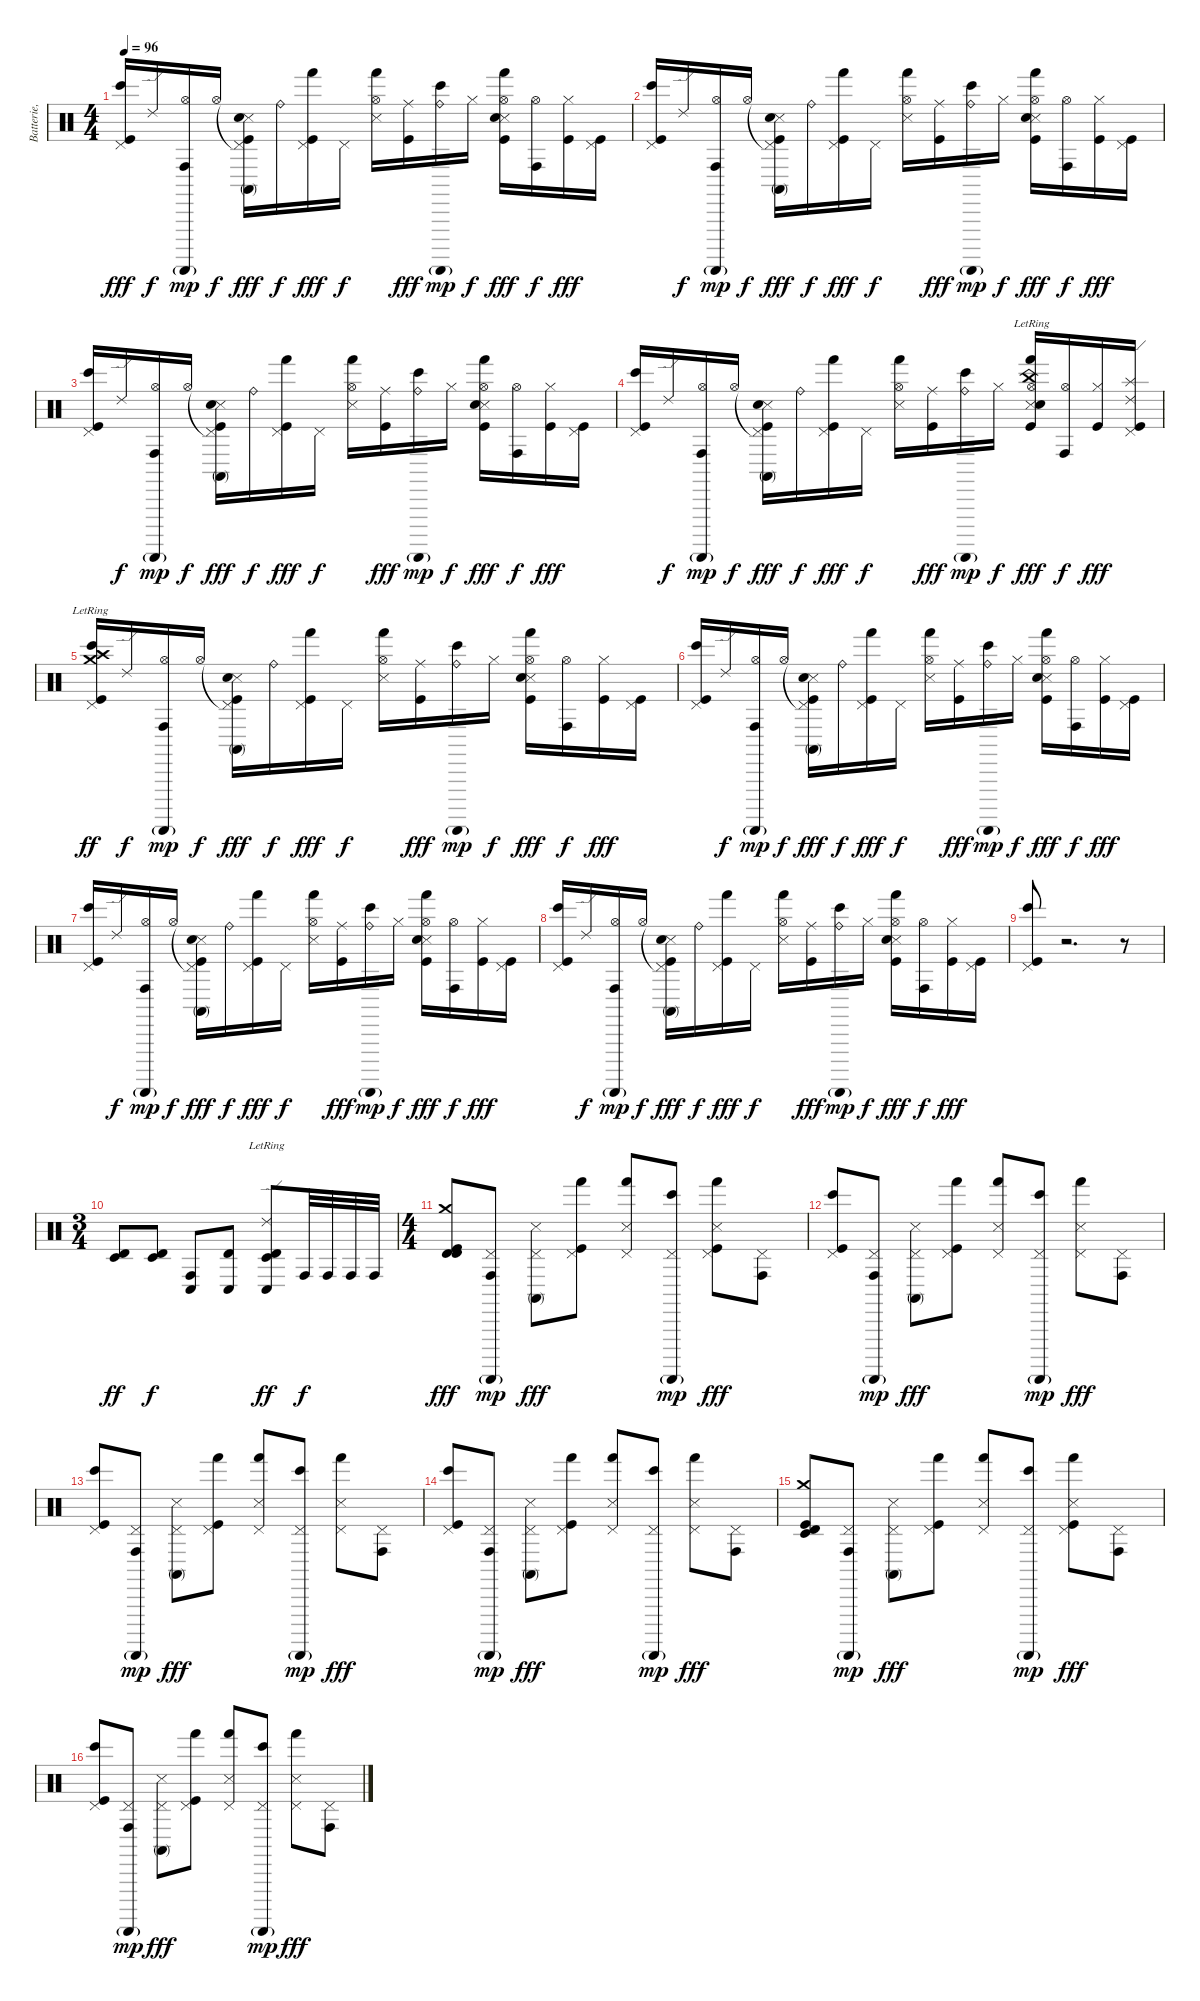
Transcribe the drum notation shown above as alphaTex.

\track ("Batterie, percu." "Batterie, ") {instrument percussion}
\staff {score}
\articulation defaults
\ts (4 4)
\tempo 96
\clef neutral
\ks c
("Pedal Hi-Hat (hit)" "Bongo High (hit)" "Kick (hit)").16{dy fff} "Ride (edge) 2".16{dy f} ("Hi-Hat (open)" "Conga high (hit)" "Guiro (scrap-return)"{g}).16{dy mp} "Hi-Hat (open)".16{dy f} ("Pedal Hi-Hat (hit)"{t} "Conga high (mute)" "Snare (side stick) 3" "Kick (hit)" "Electric Snare (hit)").16{dy fff} "Ride (bell)".16{dy f} ("Pedal Hi-Hat (hit)" "Hand (hit)" "Kick (hit)").16{dy fff} "Pedal Hi-Hat (hit)".16{dy f} ("Hi-Hat (open)" "Hand (hit)" "Snare (side stick) 3").16 ("Ride (middle)" "Kick (hit)").16{dy fff} ("Ride (bell)" "Bongo High (hit)" "Guiro (scrap-return)"{g}).16{dy mp} "Hi-Hat (closed)".16{dy f} ("Hi-Hat (open)" "Hand (hit)" "Snare (side stick) 3" "Kick (hit)" "Electric Snare (hit)").16{dy fff} ("Hi-Hat (open)" "Conga high (hit)").16{dy f} ("Hi-Hat (closed)" "Kick (hit)").16{dy fff} ("Pedal Hi-Hat (hit)" "Kick (hit)").16 |
("Pedal Hi-Hat (hit)" "Bongo High (hit)" "Kick (hit)").16 "Ride (edge) 2".16{dy f} ("Hi-Hat (open)" "Conga high (hit)" "Guiro (scrap-return)"{g}).16{dy mp} "Hi-Hat (open)".16{dy f} ("Pedal Hi-Hat (hit)"{t} "Conga high (mute)" "Snare (side stick) 3" "Kick (hit)" "Electric Snare (hit)").16{dy fff} "Ride (bell)".16{dy f} ("Pedal Hi-Hat (hit)" "Hand (hit)" "Kick (hit)").16{dy fff} "Pedal Hi-Hat (hit)".16{dy f} ("Hi-Hat (open)" "Hand (hit)" "Snare (side stick) 3").16 ("Ride (middle)" "Kick (hit)").16{dy fff} ("Ride (bell)" "Bongo High (hit)" "Guiro (scrap-return)"{g}).16{dy mp} "Hi-Hat (closed)".16{dy f} ("Hi-Hat (open)" "Hand (hit)" "Snare (side stick) 3" "Kick (hit)" "Electric Snare (hit)").16{dy fff} ("Hi-Hat (open)" "Conga high (hit)").16{dy f} ("Hi-Hat (closed)" "Kick (hit)").16{dy fff} ("Pedal Hi-Hat (hit)" "Kick (hit)").16 |
("Pedal Hi-Hat (hit)" "Bongo High (hit)" "Kick (hit)").16 "Ride (edge) 2".16{dy f} ("Hi-Hat (open)" "Conga high (hit)" "Guiro (scrap-return)"{g}).16{dy mp} "Hi-Hat (open)".16{dy f} ("Pedal Hi-Hat (hit)"{t} "Conga high (mute)" "Snare (side stick) 3" "Kick (hit)" "Electric Snare (hit)").16{dy fff} "Ride (bell)".16{dy f} ("Pedal Hi-Hat (hit)" "Hand (hit)" "Kick (hit)").16{dy fff} "Pedal Hi-Hat (hit)".16{dy f} ("Hi-Hat (open)" "Hand (hit)" "Snare (side stick) 3").16 ("Ride (middle)" "Kick (hit)").16{dy fff} ("Ride (bell)" "Bongo High (hit)" "Guiro (scrap-return)"{g}).16{dy mp} "Hi-Hat (closed)".16{dy f} ("Hi-Hat (open)" "Hand (hit)" "Snare (side stick) 3" "Kick (hit)" "Electric Snare (hit)").16{dy fff} ("Hi-Hat (open)" "Conga high (hit)").16{dy f} ("Hi-Hat (closed)" "Kick (hit)").16{dy fff} ("Pedal Hi-Hat (hit)" "Kick (hit)").16 |
("Pedal Hi-Hat (hit)" "Bongo High (hit)" "Kick (hit)").16 "Ride (edge) 2".16{dy f} ("Hi-Hat (open)" "Conga high (hit)" "Guiro (scrap-return)"{g}).16{dy mp} "Hi-Hat (open)".16{dy f} ("Pedal Hi-Hat (hit)"{t} "Conga high (mute)" "Snare (side stick) 3" "Kick (hit)" "Electric Snare (hit)").16{dy fff} "Ride (bell)".16{dy f} ("Pedal Hi-Hat (hit)" "Hand (hit)" "Kick (hit)").16{dy fff} "Pedal Hi-Hat (hit)".16{dy f} ("Hi-Hat (open)" "Hand (hit)" "Snare (side stick) 3").16 ("Ride (middle)" "Kick (hit)").16{dy fff} ("Ride (bell)" "Bongo High (hit)" "Guiro (scrap-return)"{g}).16{dy mp} "Hi-Hat (closed)".16{dy f} ("Hi-Hat (open)" "Hand (hit)" "Snare (side stick) 3" "Kick (hit)" "Electric Snare (hit)" "China (hit)"{lr}).16{dy fff} ("Hi-Hat (open)" "Conga high (hit)").16{dy f} ("Hi-Hat (closed)" "Kick (hit)").16{dy fff} ("Pedal Hi-Hat (hit)" "Kick (hit)" "Splash (hit)" "Ride (edge) 2").16 |
("Pedal Hi-Hat (hit)" "Bongo High (hit)" "Kick (hit)" "Crash medium (hit)"{lr} "Crash high (hit)"{lr}).16{dy ff} "Ride (edge) 2".16{dy f} ("Hi-Hat (open)" "Conga high (hit)" "Guiro (scrap-return)"{g}).16{dy mp} "Hi-Hat (open)".16{dy f} ("Pedal Hi-Hat (hit)"{t} "Conga high (mute)" "Snare (side stick) 3" "Kick (hit)" "Electric Snare (hit)").16{dy fff} "Ride (bell)".16{dy f} ("Pedal Hi-Hat (hit)" "Hand (hit)" "Kick (hit)").16{dy fff} "Pedal Hi-Hat (hit)".16{dy f} ("Hi-Hat (open)" "Hand (hit)" "Snare (side stick) 3").16 ("Ride (middle)" "Kick (hit)").16{dy fff} ("Ride (bell)" "Bongo High (hit)" "Guiro (scrap-return)"{g}).16{dy mp} "Hi-Hat (closed)".16{dy f} ("Hi-Hat (open)" "Hand (hit)" "Snare (side stick) 3" "Kick (hit)" "Electric Snare (hit)").16{dy fff} ("Hi-Hat (open)" "Conga high (hit)").16{dy f} ("Hi-Hat (closed)" "Kick (hit)").16{dy fff} ("Pedal Hi-Hat (hit)" "Kick (hit)").16 |
("Pedal Hi-Hat (hit)" "Bongo High (hit)" "Kick (hit)").16 "Ride (edge) 2".16{dy f} ("Hi-Hat (open)" "Conga high (hit)" "Guiro (scrap-return)"{g}).16{dy mp} "Hi-Hat (open)".16{dy f} ("Pedal Hi-Hat (hit)"{t} "Conga high (mute)" "Snare (side stick) 3" "Kick (hit)" "Electric Snare (hit)").16{dy fff} "Ride (bell)".16{dy f} ("Pedal Hi-Hat (hit)" "Hand (hit)" "Kick (hit)").16{dy fff} "Pedal Hi-Hat (hit)".16{dy f} ("Hi-Hat (open)" "Hand (hit)" "Snare (side stick) 3").16 ("Ride (middle)" "Kick (hit)").16{dy fff} ("Ride (bell)" "Bongo High (hit)" "Guiro (scrap-return)"{g}).16{dy mp} "Hi-Hat (closed)".16{dy f} ("Hi-Hat (open)" "Hand (hit)" "Snare (side stick) 3" "Kick (hit)" "Electric Snare (hit)").16{dy fff} ("Hi-Hat (open)" "Conga high (hit)").16{dy f} ("Hi-Hat (closed)" "Kick (hit)").16{dy fff} ("Pedal Hi-Hat (hit)" "Kick (hit)").16 |
("Pedal Hi-Hat (hit)" "Bongo High (hit)" "Kick (hit)").16 "Ride (edge) 2".16{dy f} ("Hi-Hat (open)" "Conga high (hit)" "Guiro (scrap-return)"{g}).16{dy mp} "Hi-Hat (open)".16{dy f} ("Pedal Hi-Hat (hit)"{t} "Conga high (mute)" "Snare (side stick) 3" "Kick (hit)" "Electric Snare (hit)").16{dy fff} "Ride (bell)".16{dy f} ("Pedal Hi-Hat (hit)" "Hand (hit)" "Kick (hit)").16{dy fff} "Pedal Hi-Hat (hit)".16{dy f} ("Hi-Hat (open)" "Hand (hit)" "Snare (side stick) 3").16 ("Ride (middle)" "Kick (hit)").16{dy fff} ("Ride (bell)" "Bongo High (hit)" "Guiro (scrap-return)"{g}).16{dy mp} "Hi-Hat (closed)".16{dy f} ("Hi-Hat (open)" "Hand (hit)" "Snare (side stick) 3" "Kick (hit)" "Electric Snare (hit)").16{dy fff} ("Hi-Hat (open)" "Conga high (hit)").16{dy f} ("Hi-Hat (closed)" "Kick (hit)").16{dy fff} ("Pedal Hi-Hat (hit)" "Kick (hit)").16 |
("Pedal Hi-Hat (hit)" "Bongo High (hit)" "Kick (hit)").16 "Ride (edge) 2".16{dy f} ("Hi-Hat (open)" "Conga high (hit)" "Guiro (scrap-return)"{g}).16{dy mp} "Hi-Hat (open)".16{dy f} ("Pedal Hi-Hat (hit)"{t} "Conga high (mute)" "Snare (side stick) 3" "Kick (hit)" "Electric Snare (hit)").16{dy fff} "Ride (bell)".16{dy f} ("Pedal Hi-Hat (hit)" "Hand (hit)" "Kick (hit)").16{dy fff} "Pedal Hi-Hat (hit)".16{dy f} ("Hi-Hat (open)" "Hand (hit)" "Snare (side stick) 3").16 ("Ride (middle)" "Kick (hit)").16{dy fff} ("Ride (bell)" "Bongo High (hit)" "Guiro (scrap-return)"{g}).16{dy mp} "Hi-Hat (closed)".16{dy f} ("Hi-Hat (open)" "Hand (hit)" "Snare (side stick) 3" "Kick (hit)" "Electric Snare (hit)").16{dy fff} ("Hi-Hat (open)" "Conga high (hit)").16{dy f} ("Hi-Hat (closed)" "Kick (hit)").16{dy fff} ("Pedal Hi-Hat (hit)" "Kick (hit)").16 |
("Pedal Hi-Hat (hit)" "Bongo High (hit)" "Kick (hit)").8 r.2{d} r.8 |
\ts (3 4)
("Timbale low (hit)" "Timbale high (hit)").8{dy ff} ("Timbale low (hit)" "Timbale high (hit)").8{dy f} ("Conga low (hit)" "Conga high (hit)").8 ("Timbale high (hit)" "Conga low (hit)").8 ("Timbale low (hit)" "Timbale high (hit)" "Conga low (hit)" "Ride (edge) 2"{lr}).8{dy ff} "Conga high (hit)".32{dy f} "Conga high (hit)".32 "Conga high (hit)".32 "Conga high (hit)".32 |
\ts (4 4)
("Crash medium (hit)" "Timbale high (hit)" "Timbale high (hit)" "Kick (hit)").8{dy fff} ("Pedal Hi-Hat (hit)" "Conga high (hit)" "Guiro (scrap-return)"{g}).8{dy mp} ("Pedal Hi-Hat (hit)" "Conga high (mute)" "Snare (side stick) 3").8{dy fff} ("Pedal Hi-Hat (hit)" "Hand (hit)" "Kick (hit)").8 ("Pedal Hi-Hat (hit)" "Hand (hit)" "Snare (side stick) 3").8 ("Pedal Hi-Hat (hit)" "Bongo High (hit)" "Guiro (scrap-return)"{g}).8{dy mp} ("Pedal Hi-Hat (hit)" "Hand (hit)" "Snare (side stick) 3" "Kick (hit)").8{dy fff} ("Pedal Hi-Hat (hit)" "Conga high (hit)").8 |
("Pedal Hi-Hat (hit)" "Bongo High (hit)" "Kick (hit)").8 ("Pedal Hi-Hat (hit)" "Conga high (hit)" "Guiro (scrap-return)"{g}).8{dy mp} ("Pedal Hi-Hat (hit)" "Conga high (mute)" "Snare (side stick) 3").8{dy fff} ("Pedal Hi-Hat (hit)" "Hand (hit)" "Kick (hit)").8 ("Pedal Hi-Hat (hit)" "Hand (hit)" "Snare (side stick) 3").8 ("Pedal Hi-Hat (hit)" "Bongo High (hit)" "Guiro (scrap-return)"{g}).8{dy mp} ("Pedal Hi-Hat (hit)" "Hand (hit)" "Snare (side stick) 3").8{dy fff} ("Pedal Hi-Hat (hit)" "Conga high (hit)").8 |
("Pedal Hi-Hat (hit)" "Bongo High (hit)" "Kick (hit)").8 ("Pedal Hi-Hat (hit)" "Conga high (hit)" "Guiro (scrap-return)"{g}).8{dy mp} ("Pedal Hi-Hat (hit)" "Conga high (mute)" "Snare (side stick) 3").8{dy fff} ("Pedal Hi-Hat (hit)" "Hand (hit)" "Kick (hit)").8 ("Pedal Hi-Hat (hit)" "Hand (hit)" "Snare (side stick) 3").8 ("Pedal Hi-Hat (hit)" "Bongo High (hit)" "Guiro (scrap-return)"{g}).8{dy mp} ("Pedal Hi-Hat (hit)" "Hand (hit)" "Snare (side stick) 3").8{dy fff} ("Pedal Hi-Hat (hit)" "Conga high (hit)").8 |
("Pedal Hi-Hat (hit)" "Bongo High (hit)" "Kick (hit)").8 ("Pedal Hi-Hat (hit)" "Conga high (hit)" "Guiro (scrap-return)"{g}).8{dy mp} ("Pedal Hi-Hat (hit)" "Conga high (mute)" "Snare (side stick) 3").8{dy fff} ("Pedal Hi-Hat (hit)" "Hand (hit)" "Kick (hit)").8 ("Pedal Hi-Hat (hit)" "Hand (hit)" "Snare (side stick) 3").8 ("Pedal Hi-Hat (hit)" "Bongo High (hit)" "Guiro (scrap-return)"{g}).8{dy mp} ("Pedal Hi-Hat (hit)" "Hand (hit)" "Snare (side stick) 3").8{dy fff} ("Pedal Hi-Hat (hit)" "Conga high (hit)").8 |
("Crash medium (hit)" "Timbale low (hit)" "Timbale high (hit)" "Kick (hit)").8 ("Pedal Hi-Hat (hit)" "Conga high (hit)" "Guiro (scrap-return)"{g}).8{dy mp} ("Pedal Hi-Hat (hit)" "Conga high (mute)" "Snare (side stick) 3").8{dy fff} ("Pedal Hi-Hat (hit)" "Hand (hit)" "Kick (hit)").8 ("Pedal Hi-Hat (hit)" "Hand (hit)" "Snare (side stick) 3").8 ("Pedal Hi-Hat (hit)" "Bongo High (hit)" "Guiro (scrap-return)"{g}).8{dy mp} ("Pedal Hi-Hat (hit)" "Hand (hit)" "Snare (side stick) 3" "Kick (hit)").8{dy fff} ("Pedal Hi-Hat (hit)" "Conga high (hit)").8 |
("Pedal Hi-Hat (hit)" "Bongo High (hit)" "Kick (hit)").8 ("Pedal Hi-Hat (hit)" "Conga high (hit)" "Guiro (scrap-return)"{g}).8{dy mp} ("Pedal Hi-Hat (hit)" "Conga high (mute)" "Snare (side stick) 3").8{dy fff} ("Pedal Hi-Hat (hit)" "Hand (hit)" "Kick (hit)").8 ("Pedal Hi-Hat (hit)" "Hand (hit)" "Snare (side stick) 3").8 ("Pedal Hi-Hat (hit)" "Bongo High (hit)" "Guiro (scrap-return)"{g}).8{dy mp} ("Pedal Hi-Hat (hit)" "Hand (hit)" "Snare (side stick) 3").8{dy fff} ("Pedal Hi-Hat (hit)" "Conga high (hit)").8
